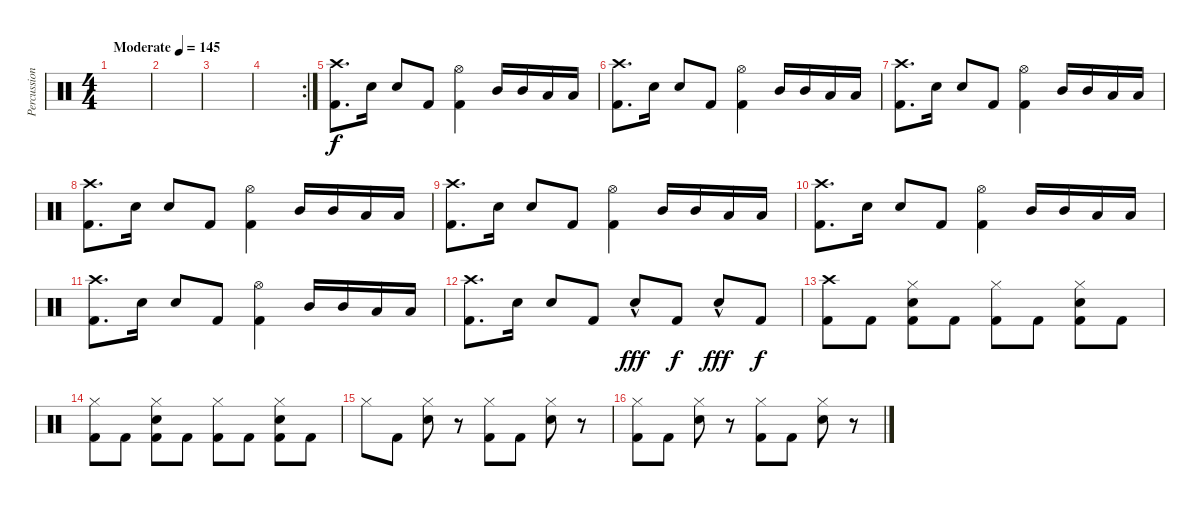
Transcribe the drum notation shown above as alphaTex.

\track ("Percussion" "Percussion") {instrument percussion}
\staff {score}
\articulation defaults
\ts (4 4)
\tempo (145 "Moderate")
\clef neutral
\ks c
|
|
|
\rc 2
|
("Crash high (hit)" "Kick (hit) 2").8{d} "Snare (hit) 2".16 "Snare (hit) 2".8 "Kick (hit) 2".8 ("Hi-Hat (open)" "Kick (hit) 2").4 "Mid Tom (hit)".16 "Mid Tom (hit)".16 "Low Tom (hit)".16 "Low Tom (hit)".16 |
("Crash high (hit)" "Kick (hit) 2").8{d} "Snare (hit) 2".16 "Snare (hit) 2".8 "Kick (hit) 2".8 ("Hi-Hat (open)" "Kick (hit) 2").4 "Mid Tom (hit)".16 "Mid Tom (hit)".16 "Low Tom (hit)".16 "Low Tom (hit)".16 |
("Crash high (hit)" "Kick (hit) 2").8{d} "Snare (hit) 2".16 "Snare (hit) 2".8 "Kick (hit) 2".8 ("Hi-Hat (open)" "Kick (hit) 2").4 "Mid Tom (hit)".16 "Mid Tom (hit)".16 "Low Tom (hit)".16 "Low Tom (hit)".16 |
("Crash high (hit)" "Kick (hit) 2").8{d} "Snare (hit) 2".16 "Snare (hit) 2".8 "Kick (hit) 2".8 ("Hi-Hat (open)" "Kick (hit) 2").4 "Mid Tom (hit)".16 "Mid Tom (hit)".16 "Low Tom (hit)".16 "Low Tom (hit)".16 |
("Crash high (hit)" "Kick (hit) 2").8{d} "Snare (hit) 2".16 "Snare (hit) 2".8 "Kick (hit) 2".8 ("Hi-Hat (open)" "Kick (hit) 2").4 "Mid Tom (hit)".16 "Mid Tom (hit)".16 "Low Tom (hit)".16 "Low Tom (hit)".16 |
("Crash high (hit)" "Kick (hit) 2").8{d} "Snare (hit) 2".16 "Snare (hit) 2".8 "Kick (hit) 2".8 ("Hi-Hat (open)" "Kick (hit) 2").4 "Mid Tom (hit)".16 "Mid Tom (hit)".16 "Low Tom (hit)".16 "Low Tom (hit)".16 |
("Crash high (hit)" "Kick (hit) 2").8{d} "Snare (hit) 2".16 "Snare (hit) 2".8 "Kick (hit) 2".8 ("Hi-Hat (open)" "Kick (hit) 2").4 "Mid Tom (hit)".16 "Mid Tom (hit)".16 "Low Tom (hit)".16 "Low Tom (hit)".16 |
("Crash high (hit)" "Kick (hit) 2").8{d} "Snare (hit) 2".16 "Snare (hit) 2".8 "Kick (hit) 2".8 "Snare (hit) 2"{hac}.8{dy fff} "Kick (hit) 2".8{dy f} "Snare (hit) 2"{hac}.8{dy fff} "Kick (hit) 2".8{dy f} |
("Crash high (hit)" "Kick (hit) 2").8 "Kick (hit) 2".8 ("Hi-Hat (closed)" "Snare (hit) 2" "Kick (hit) 2").8 "Kick (hit) 2".8 ("Hi-Hat (closed)" "Kick (hit) 2").8 "Kick (hit) 2".8 ("Hi-Hat (closed)" "Snare (hit) 2" "Kick (hit) 2").8 "Kick (hit) 2".8 |
("Hi-Hat (closed)" "Kick (hit) 2").8 "Kick (hit) 2".8 ("Hi-Hat (closed)" "Snare (hit) 2" "Kick (hit) 2").8 "Kick (hit) 2".8 ("Hi-Hat (closed)" "Kick (hit) 2").8 "Kick (hit) 2".8 ("Hi-Hat (closed)" "Snare (hit) 2" "Kick (hit) 2").8 "Kick (hit) 2".8 |
"Hi-Hat (closed)".8 "Kick (hit) 2".8 ("Hi-Hat (closed)" "Snare (hit) 2").8 r.8 ("Hi-Hat (closed)" "Kick (hit) 2").8 "Kick (hit) 2".8 ("Hi-Hat (closed)" "Snare (hit) 2").8 r.8 |
("Hi-Hat (closed)" "Kick (hit) 2").8 "Kick (hit) 2".8 ("Hi-Hat (closed)" "Snare (hit) 2").8 r.8 ("Hi-Hat (closed)" "Kick (hit) 2").8 "Kick (hit) 2".8 ("Hi-Hat (closed)" "Snare (hit) 2").8 r.8
